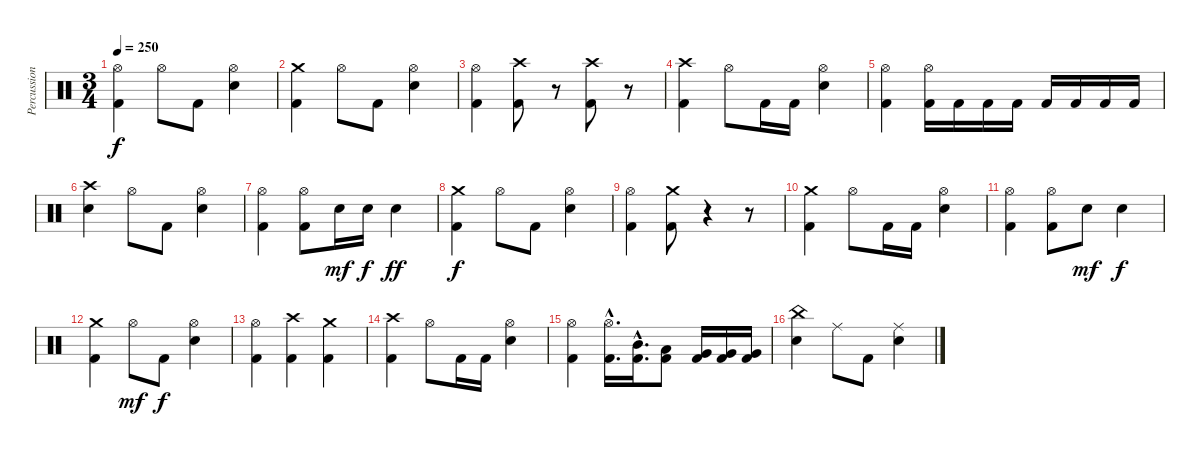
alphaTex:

\track ("Percussion" "Percussion") {instrument percussion}
\staff {score}
\articulation defaults
\ts (3 4)
\tempo 250
\clef neutral
\ks c
("Hi-Hat (open)" "Kick (hit) 2").4{dy f} "Hi-Hat (open)".8 "Kick (hit) 2".8 ("Hi-Hat (open)" "Electric Snare (hit)").4 |
("Crash medium (hit)" "Kick (hit) 2").4 "Hi-Hat (open)".8 "Kick (hit) 2".8 ("Hi-Hat (open)" "Electric Snare (hit)").4 |
("Hi-Hat (open)" "Kick (hit) 2").4 ("Crash high (hit)" "Kick (hit) 2").8 r.8{volume 0} ("Crash high (hit)" "Kick (hit) 2").8{volume 13} r.8{volume 0} |
("Crash high (hit)" "Kick (hit) 2").4{volume 13} "Hi-Hat (open)".8 "Kick (hit) 2".16 "Kick (hit) 2".16 ("Hi-Hat (open)" "Electric Snare (hit)").4 |
("Hi-Hat (open)" "Kick (hit) 2").4 ("Hi-Hat (open)" "Kick (hit) 2").16 "Kick (hit) 2".16 "Kick (hit) 2".16 "Kick (hit) 2".16 "Kick (hit) 2".16 "Kick (hit) 2".16 "Kick (hit) 2".16 "Kick (hit) 2".16 |
("Crash high (hit)" "Electric Snare (hit)").4 "Hi-Hat (open)".8 "Kick (hit) 2".8 ("Hi-Hat (open)" "Electric Snare (hit)").4 |
("Hi-Hat (open)" "Kick (hit) 2").4 ("Hi-Hat (open)" "Kick (hit) 2").8 "Electric Snare (hit)".16{dy mf} "Electric Snare (hit)".16{dy f} "Electric Snare (hit)".4{dy ff} |
("Crash medium (hit)" "Kick (hit) 2").4{dy f} "Hi-Hat (open)".8 "Kick (hit) 2".8 ("Hi-Hat (open)" "Electric Snare (hit)").4 |
("Hi-Hat (open)" "Kick (hit) 2").4 ("Crash medium (hit)" "Kick (hit) 2").8 r.4{volume 0} r.8 |
("Crash medium (hit)" "Kick (hit) 2").4{volume 13} "Hi-Hat (open)".8 "Kick (hit) 2".16 "Kick (hit) 2".16 ("Hi-Hat (open)" "Electric Snare (hit)").4 |
("Hi-Hat (open)" "Kick (hit) 2").4 ("Hi-Hat (open)" "Kick (hit) 2").8 "Electric Snare (hit)".8{dy mf} "Electric Snare (hit)".4{dy f} |
("Crash medium (hit)" "Kick (hit) 2").4 "Hi-Hat (open)".8{dy mf} "Kick (hit) 2".8{dy f} ("Hi-Hat (open)" "Electric Snare (hit)").4 |
("Hi-Hat (open)" "Kick (hit) 2").4 ("Crash high (hit)" "Kick (hit) 2").4 ("Crash medium (hit)" "Kick (hit) 2").4 |
("Crash high (hit)" "Kick (hit) 2").4 "Hi-Hat (open)".8 "Kick (hit) 2".16 "Kick (hit) 2".16 ("Hi-Hat (open)" "Electric Snare (hit)").4 |
("Hi-Hat (open)" "Kick (hit) 2").4 ("Hi-Hat (open)"{hac} "Kick (hit) 2"{hac}).16{d} ("Mid Tom (hit)"{hac} "Kick (hit) 2"{hac}).16{d} ("Low Tom (hit)" "Kick (hit) 2").8 ("Very Low Tom (hit)" "Kick (hit) 2").16 ("Very Low Tom (hit)" "Kick (hit) 2").16 ("Very Low Tom (hit)" "Kick (hit) 2").16 |
("China (hit)" "Electric Snare (hit)").4 "Ride (middle)".8 "Kick (hit) 2".8 ("Ride (middle)" "Electric Snare (hit)").4
